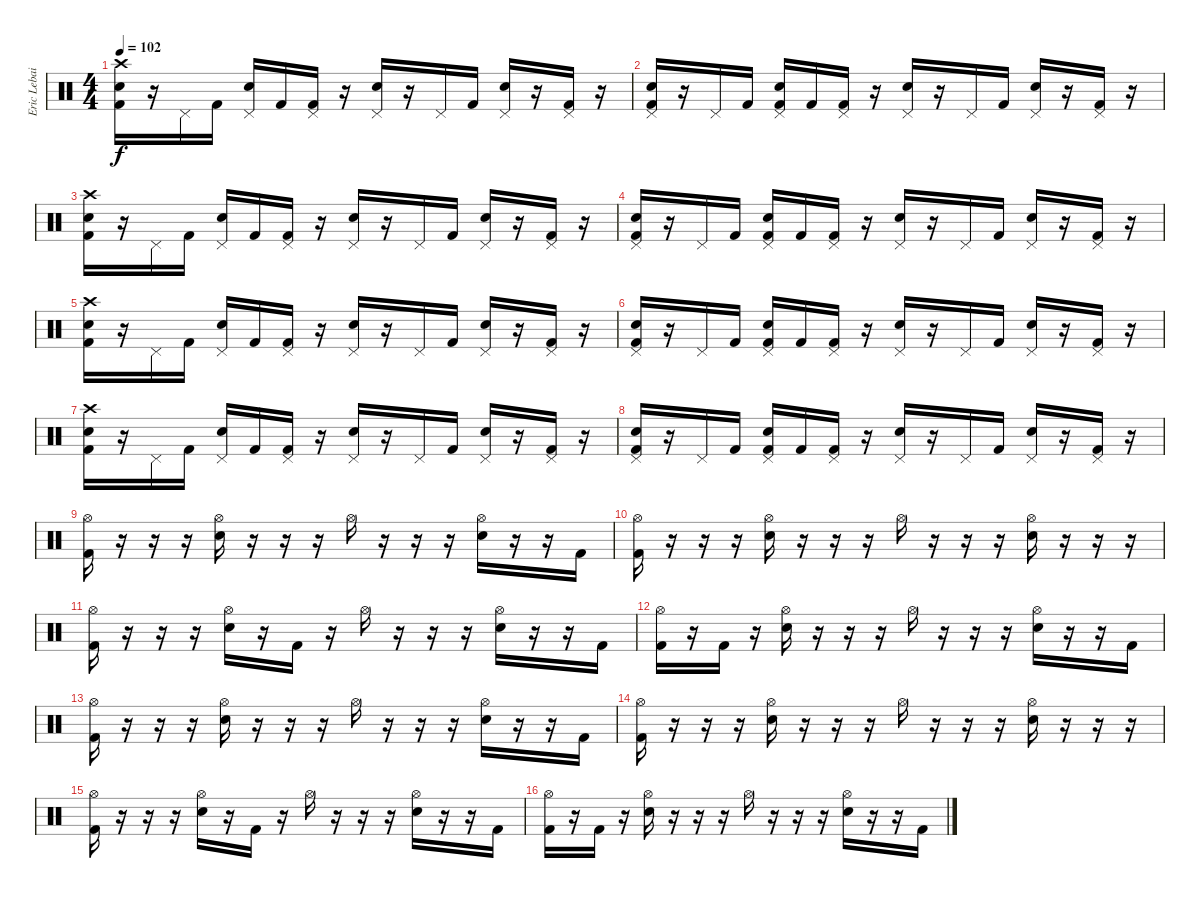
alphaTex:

\track ("Eric Lebailly" "Eric Lebai") {instrument percussion}
\staff {score}
\articulation defaults
\ts (4 4)
\tempo 102
\clef neutral
\ks c
("Crash high (hit)" "Snare (hit) 2" "Kick (hit) 2").16{dy f} r.16 "Pedal Hi-Hat (hit)".16 "Kick (hit) 2".16 ("Pedal Hi-Hat (hit)" "Snare (hit) 2").16 "Kick (hit) 2".16 ("Pedal Hi-Hat (hit)" "Kick (hit) 2").16 r.16 ("Pedal Hi-Hat (hit)" "Snare (hit) 2").16 r.16 "Pedal Hi-Hat (hit)".16 "Kick (hit) 2".16 ("Pedal Hi-Hat (hit)" "Snare (hit) 2").16 r.16 ("Pedal Hi-Hat (hit)" "Kick (hit) 2").16 r.16 |
("Pedal Hi-Hat (hit)" "Snare (hit) 2" "Kick (hit) 2").16 r.16 "Pedal Hi-Hat (hit)".16 "Kick (hit) 2".16 ("Pedal Hi-Hat (hit)" "Snare (hit) 2" "Kick (hit) 2").16 "Kick (hit) 2".16 ("Pedal Hi-Hat (hit)" "Kick (hit) 2").16 r.16 ("Pedal Hi-Hat (hit)" "Snare (hit) 2").16 r.16 "Pedal Hi-Hat (hit)".16 "Kick (hit) 2".16 ("Pedal Hi-Hat (hit)" "Snare (hit) 2").16 r.16 ("Pedal Hi-Hat (hit)" "Kick (hit) 2").16 r.16 |
("Crash high (hit)" "Snare (hit) 2" "Kick (hit) 2").16 r.16 "Pedal Hi-Hat (hit)".16 "Kick (hit) 2".16 ("Pedal Hi-Hat (hit)" "Snare (hit) 2").16 "Kick (hit) 2".16 ("Pedal Hi-Hat (hit)" "Kick (hit) 2").16 r.16 ("Pedal Hi-Hat (hit)" "Snare (hit) 2").16 r.16 "Pedal Hi-Hat (hit)".16 "Kick (hit) 2".16 ("Pedal Hi-Hat (hit)" "Snare (hit) 2").16 r.16 ("Pedal Hi-Hat (hit)" "Kick (hit) 2").16 r.16 |
("Pedal Hi-Hat (hit)" "Snare (hit) 2" "Kick (hit) 2").16 r.16 "Pedal Hi-Hat (hit)".16 "Kick (hit) 2".16 ("Pedal Hi-Hat (hit)" "Snare (hit) 2" "Kick (hit) 2").16 "Kick (hit) 2".16 ("Pedal Hi-Hat (hit)" "Kick (hit) 2").16 r.16 ("Pedal Hi-Hat (hit)" "Snare (hit) 2").16 r.16 "Pedal Hi-Hat (hit)".16 "Kick (hit) 2".16 ("Pedal Hi-Hat (hit)" "Snare (hit) 2").16 r.16 ("Pedal Hi-Hat (hit)" "Kick (hit) 2").16 r.16 |
("Crash high (hit)" "Snare (hit) 2" "Kick (hit) 2").16 r.16 "Pedal Hi-Hat (hit)".16 "Kick (hit) 2".16 ("Pedal Hi-Hat (hit)" "Snare (hit) 2").16 "Kick (hit) 2".16 ("Pedal Hi-Hat (hit)" "Kick (hit) 2").16 r.16 ("Pedal Hi-Hat (hit)" "Snare (hit) 2").16 r.16 "Pedal Hi-Hat (hit)".16 "Kick (hit) 2".16 ("Pedal Hi-Hat (hit)" "Snare (hit) 2").16 r.16 ("Pedal Hi-Hat (hit)" "Kick (hit) 2").16 r.16 |
("Pedal Hi-Hat (hit)" "Snare (hit) 2" "Kick (hit) 2").16 r.16 "Pedal Hi-Hat (hit)".16 "Kick (hit) 2".16 ("Pedal Hi-Hat (hit)" "Snare (hit) 2" "Kick (hit) 2").16 "Kick (hit) 2".16 ("Pedal Hi-Hat (hit)" "Kick (hit) 2").16 r.16 ("Pedal Hi-Hat (hit)" "Snare (hit) 2").16 r.16 "Pedal Hi-Hat (hit)".16 "Kick (hit) 2".16 ("Pedal Hi-Hat (hit)" "Snare (hit) 2").16 r.16 ("Pedal Hi-Hat (hit)" "Kick (hit) 2").16 r.16 |
("Crash high (hit)" "Snare (hit) 2" "Kick (hit) 2").16 r.16 "Pedal Hi-Hat (hit)".16 "Kick (hit) 2".16 ("Pedal Hi-Hat (hit)" "Snare (hit) 2").16 "Kick (hit) 2".16 ("Pedal Hi-Hat (hit)" "Kick (hit) 2").16 r.16 ("Pedal Hi-Hat (hit)" "Snare (hit) 2").16 r.16 "Pedal Hi-Hat (hit)".16 "Kick (hit) 2".16 ("Pedal Hi-Hat (hit)" "Snare (hit) 2").16 r.16 ("Pedal Hi-Hat (hit)" "Kick (hit) 2").16 r.16 |
("Pedal Hi-Hat (hit)" "Snare (hit) 2" "Kick (hit) 2").16 r.16 "Pedal Hi-Hat (hit)".16 "Kick (hit) 2".16 ("Pedal Hi-Hat (hit)" "Snare (hit) 2" "Kick (hit) 2").16 "Kick (hit) 2".16 ("Pedal Hi-Hat (hit)" "Kick (hit) 2").16 r.16 ("Pedal Hi-Hat (hit)" "Snare (hit) 2").16 r.16 "Pedal Hi-Hat (hit)".16 "Kick (hit) 2".16 ("Pedal Hi-Hat (hit)" "Snare (hit) 2").16 r.16 ("Pedal Hi-Hat (hit)" "Kick (hit) 2").16 r.16 |
("Hi-Hat (open)" "Kick (hit) 2").16 r.16 r.16 r.16 ("Hi-Hat (open)" "Snare (hit) 2").16 r.16 r.16 r.16 "Hi-Hat (open)".16 r.16 r.16 r.16 ("Hi-Hat (open)" "Snare (hit) 2").16 r.16 r.16 "Kick (hit) 2".16 |
("Hi-Hat (open)" "Kick (hit) 2").16 r.16 r.16 r.16 ("Hi-Hat (open)" "Snare (hit) 2").16 r.16 r.16 r.16 "Hi-Hat (open)".16 r.16 r.16 r.16 ("Hi-Hat (open)" "Snare (hit) 2").16 r.16 r.16 r.16 |
("Hi-Hat (open)" "Kick (hit) 2").16 r.16 r.16 r.16 ("Hi-Hat (open)" "Snare (hit) 2").16 r.16 "Kick (hit) 2".16 r.16 "Hi-Hat (open)".16 r.16 r.16 r.16 ("Hi-Hat (open)" "Snare (hit) 2").16 r.16 r.16 "Kick (hit) 2".16 |
("Hi-Hat (open)" "Kick (hit) 2").16 r.16 "Kick (hit) 2".16 r.16 ("Hi-Hat (open)" "Snare (hit) 2").16 r.16 r.16 r.16 "Hi-Hat (open)".16 r.16 r.16 r.16 ("Hi-Hat (open)" "Snare (hit) 2").16 r.16 r.16 "Kick (hit) 2".16 |
("Hi-Hat (open)" "Kick (hit) 2").16 r.16 r.16 r.16 ("Hi-Hat (open)" "Snare (hit) 2").16 r.16 r.16 r.16 "Hi-Hat (open)".16 r.16 r.16 r.16 ("Hi-Hat (open)" "Snare (hit) 2").16 r.16 r.16 "Kick (hit) 2".16 |
("Hi-Hat (open)" "Kick (hit) 2").16 r.16 r.16 r.16 ("Hi-Hat (open)" "Snare (hit) 2").16 r.16 r.16 r.16 "Hi-Hat (open)".16 r.16 r.16 r.16 ("Hi-Hat (open)" "Snare (hit) 2").16 r.16 r.16 r.16 |
("Hi-Hat (open)" "Kick (hit) 2").16 r.16 r.16 r.16 ("Hi-Hat (open)" "Snare (hit) 2").16 r.16 "Kick (hit) 2".16 r.16 "Hi-Hat (open)".16 r.16 r.16 r.16 ("Hi-Hat (open)" "Snare (hit) 2").16 r.16 r.16 "Kick (hit) 2".16 |
("Hi-Hat (open)" "Kick (hit) 2").16 r.16 "Kick (hit) 2".16 r.16 ("Hi-Hat (open)" "Snare (hit) 2").16 r.16 r.16 r.16 "Hi-Hat (open)".16 r.16 r.16 r.16 ("Hi-Hat (open)" "Snare (hit) 2").16 r.16 r.16 "Kick (hit) 2".16
